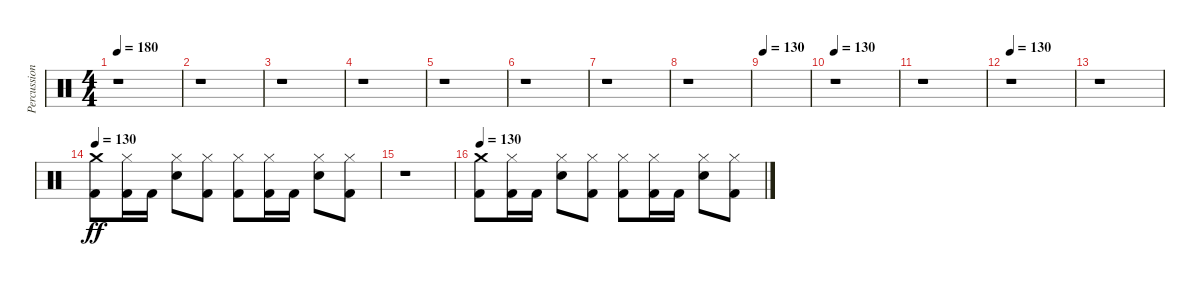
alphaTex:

\track ("Percussioni" "Percussion") {instrument percussion}
\staff {score}
\articulation defaults
\ts (4 4)
\tempo 180
\clef neutral
\ks c
r.1{dy f} |
r.1 |
r.1 |
r.1 |
r.1 |
r.1 |
r.1 |
r.1 |
\tempo 130
|
\tempo 130
r.1 |
r.1 |
\tempo 130
r.1 |
r.1 |
\tempo 130
("Crash medium (hit)" "Kick (hit) 2").8{dy ff} ("Hi-Hat (closed)" "Kick (hit) 2").16 "Kick (hit) 2".16 ("Hi-Hat (closed)" "Electric Snare (hit)").8 ("Hi-Hat (closed)" "Kick (hit) 2").8 ("Hi-Hat (closed)" "Kick (hit) 2").8 ("Hi-Hat (closed)" "Kick (hit) 2").16 "Kick (hit) 2".16 ("Hi-Hat (closed)" "Electric Snare (hit)").8 ("Hi-Hat (closed)" "Kick (hit) 2").8 |
r.1 |
\tempo 130
("Crash medium (hit)" "Kick (hit) 2").8 ("Hi-Hat (closed)" "Kick (hit) 2").16 "Kick (hit) 2".16 ("Hi-Hat (closed)" "Electric Snare (hit)").8 ("Hi-Hat (closed)" "Kick (hit) 2").8 ("Hi-Hat (closed)" "Kick (hit) 2").8 ("Hi-Hat (closed)" "Kick (hit) 2").16 "Kick (hit) 2".16 ("Hi-Hat (closed)" "Electric Snare (hit)").8 ("Hi-Hat (closed)" "Kick (hit) 2").8
